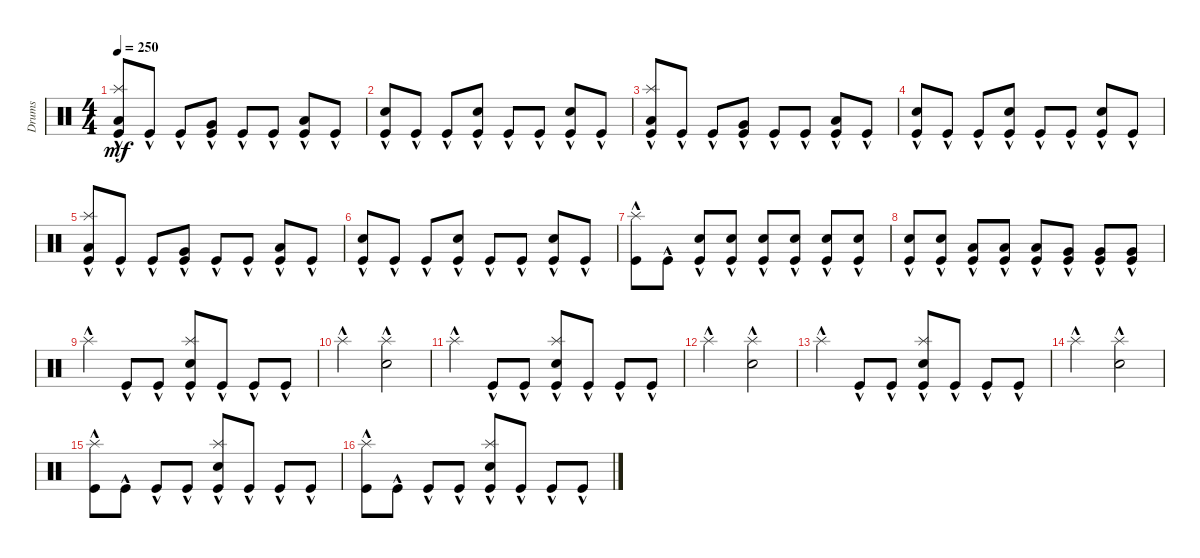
\track ("Drums" "Drums") {instrument percussion}
\staff {score}
\articulation defaults
\ts (4 4)
\tempo 250
\clef neutral
\ks c
("Kick (hit)"{hac} "Splash (hit)"{hac} "Low Tom (hit)"{hac}).8{dy mf} "Kick (hit)"{hac}.8 "Kick (hit)"{hac}.8 ("Kick (hit)"{hac} "Very Low Tom (hit)"{hac}).8 "Kick (hit)"{hac}.8 "Kick (hit)"{hac}.8 ("Kick (hit)"{hac} "Low Floor Tom (hit)"{hac}).8 "Kick (hit)"{hac}.8 |
("Kick (hit)"{hac} "Snare (hit) 2"{hac}).8 "Kick (hit)"{hac}.8 "Kick (hit)"{hac}.8 ("Kick (hit)"{hac} "Snare (hit) 2"{hac}).8 "Kick (hit)"{hac}.8 "Kick (hit)"{hac}.8 ("Kick (hit)"{hac} "Snare (hit) 2"{hac}).8 "Kick (hit)"{hac}.8 |
("Kick (hit)"{hac} "Low Tom (hit)"{hac} "Splash (hit)"{hac}).8 "Kick (hit)"{hac}.8 "Kick (hit)"{hac}.8 ("Kick (hit)"{hac} "Very Low Tom (hit)"{hac}).8 "Kick (hit)"{hac}.8 "Kick (hit)"{hac}.8 ("Kick (hit)"{hac} "Low Floor Tom (hit)"{hac}).8 "Kick (hit)"{hac}.8 |
("Kick (hit)"{hac} "Snare (hit) 2"{hac}).8 "Kick (hit)"{hac}.8 "Kick (hit)"{hac}.8 ("Kick (hit)"{hac} "Snare (hit) 2"{hac}).8 "Kick (hit)"{hac}.8 "Kick (hit)"{hac}.8 ("Kick (hit)"{hac} "Snare (hit) 2"{hac}).8 "Kick (hit)"{hac}.8 |
("Kick (hit)"{hac} "Splash (hit)"{hac} "Low Tom (hit)"{hac}).8 "Kick (hit)"{hac}.8 "Kick (hit)"{hac}.8 ("Kick (hit)"{hac} "Very Low Tom (hit)"{hac}).8 "Kick (hit)"{hac}.8 "Kick (hit)"{hac}.8 ("Kick (hit)"{hac} "Low Floor Tom (hit)"{hac}).8 "Kick (hit)"{hac}.8 |
("Kick (hit)"{hac} "Snare (hit) 2"{hac}).8 "Kick (hit)"{hac}.8 "Kick (hit)"{hac}.8 ("Kick (hit)"{hac} "Snare (hit) 2"{hac}).8 "Kick (hit)"{hac}.8 "Kick (hit)"{hac}.8 ("Kick (hit)"{hac} "Snare (hit) 2"{hac}).8 "Kick (hit)"{hac}.8 |
("Kick (hit)"{hac} "Splash (hit)"{hac}).8 "Kick (hit)"{hac}.8 ("Kick (hit)"{hac} "Snare (hit) 2"{hac}).8 ("Kick (hit)"{hac} "Snare (hit) 2"{hac}).8 ("Kick (hit)"{hac} "Snare (hit) 2"{hac}).8 ("Kick (hit)"{hac} "Snare (hit) 2"{hac}).8 ("Kick (hit)"{hac} "Snare (hit) 2"{hac}).8 ("Kick (hit)"{hac} "Snare (hit) 2"{hac}).8 |
("Kick (hit)"{hac} "Snare (hit) 2"{hac}).8 ("Kick (hit)"{hac} "Snare (hit) 2"{hac}).8 ("Kick (hit)"{hac} "Low Tom (hit)"{hac}).8 ("Kick (hit)"{hac} "Low Tom (hit)"{hac}).8 ("Kick (hit)"{hac} "Low Tom (hit)"{hac}).8 ("Kick (hit)"{hac} "Very Low Tom (hit)"{hac}).8 ("Kick (hit)"{hac} "Very Low Tom (hit)"{hac}).8 ("Kick (hit)"{hac} "Very Low Tom (hit)"{hac}).8 |
"Splash (hit)"{hac}.4 "Kick (hit)"{hac}.8 "Kick (hit)"{hac}.8 ("Kick (hit)"{hac} "Snare (hit) 2"{hac} "Splash (hit)"{hac}).8 "Kick (hit)"{hac}.8 "Kick (hit)"{hac}.8 "Kick (hit)"{hac}.8 |
"Splash (hit)"{hac}.2 ("Splash (hit)"{hac} "Snare (hit) 2"{hac}).2 |
"Splash (hit)"{hac}.4 "Kick (hit)"{hac}.8 "Kick (hit)"{hac}.8 ("Kick (hit)"{hac} "Snare (hit) 2"{hac} "Splash (hit)"{hac}).8 "Kick (hit)"{hac}.8 "Kick (hit)"{hac}.8 "Kick (hit)"{hac}.8 |
"Splash (hit)"{hac}.2 ("Splash (hit)"{hac} "Snare (hit) 2"{hac}).2 |
"Splash (hit)"{hac}.4 "Kick (hit)"{hac}.8 "Kick (hit)"{hac}.8 ("Kick (hit)"{hac} "Snare (hit) 2"{hac} "Splash (hit)"{hac}).8 "Kick (hit)"{hac}.8 "Kick (hit)"{hac}.8 "Kick (hit)"{hac}.8 |
"Splash (hit)"{hac}.2 ("Splash (hit)"{hac} "Snare (hit) 2"{hac}).2 |
("Kick (hit)"{hac} "Splash (hit)"{hac}).8 "Kick (hit)"{hac}.8 "Kick (hit)"{hac}.8 "Kick (hit)"{hac}.8 ("Kick (hit)"{hac} "Splash (hit)"{hac} "Snare (hit) 2"{hac}).8 "Kick (hit)"{hac}.8 "Kick (hit)"{hac}.8 "Kick (hit)"{hac}.8 |
("Kick (hit)"{hac} "Splash (hit)"{hac}).8 "Kick (hit)"{hac}.8 "Kick (hit)"{hac}.8 "Kick (hit)"{hac}.8 ("Kick (hit)"{hac} "Splash (hit)"{hac} "Snare (hit) 2"{hac}).8 "Kick (hit)"{hac}.8 "Kick (hit)"{hac}.8 "Kick (hit)"{hac}.8
